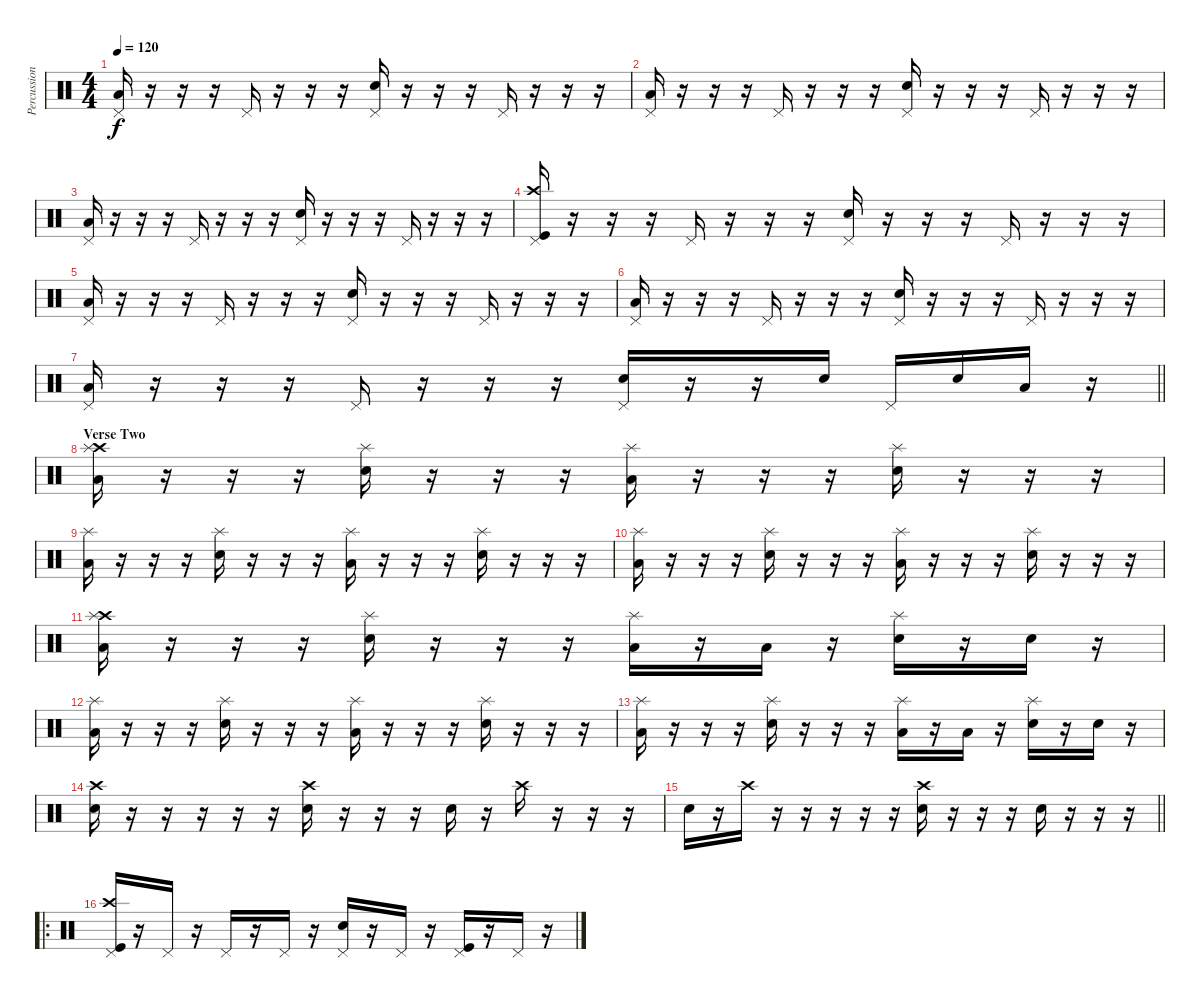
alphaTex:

\track ("Percussion" "Percussion") {instrument percussion}
\staff {score}
\articulation defaults
\ts (4 4)
\tempo 120
\clef neutral
\ks c
("Pedal Hi-Hat (hit)" "Low Tom (hit)").16{dy f} r.16 r.16 r.16 "Pedal Hi-Hat (hit)".16 r.16 r.16 r.16 ("Pedal Hi-Hat (hit)" "Electric Snare (hit)").16 r.16 r.16 r.16 "Pedal Hi-Hat (hit)".16 r.16 r.16 r.16 |
("Pedal Hi-Hat (hit)" "Low Tom (hit)").16 r.16 r.16 r.16 "Pedal Hi-Hat (hit)".16 r.16 r.16 r.16 ("Pedal Hi-Hat (hit)" "Electric Snare (hit)").16 r.16 r.16 r.16 "Pedal Hi-Hat (hit)".16 r.16 r.16 r.16 |
("Pedal Hi-Hat (hit)" "Low Tom (hit)").16 r.16 r.16 r.16 "Pedal Hi-Hat (hit)".16 r.16 r.16 r.16 ("Pedal Hi-Hat (hit)" "Electric Snare (hit)").16 r.16 r.16 r.16 "Pedal Hi-Hat (hit)".16 r.16 r.16 r.16 |
("Crash high (hit)" "Pedal Hi-Hat (hit)" "Kick (hit)").16 r.16 r.16 r.16 "Pedal Hi-Hat (hit)".16 r.16 r.16 r.16 ("Pedal Hi-Hat (hit)" "Electric Snare (hit)").16 r.16 r.16 r.16 "Pedal Hi-Hat (hit)".16 r.16 r.16 r.16 |
("Pedal Hi-Hat (hit)" "Low Tom (hit)").16 r.16 r.16 r.16 "Pedal Hi-Hat (hit)".16 r.16 r.16 r.16 ("Pedal Hi-Hat (hit)" "Electric Snare (hit)").16 r.16 r.16 r.16 "Pedal Hi-Hat (hit)".16 r.16 r.16 r.16 |
("Pedal Hi-Hat (hit)" "Low Tom (hit)").16 r.16 r.16 r.16 "Pedal Hi-Hat (hit)".16 r.16 r.16 r.16 ("Pedal Hi-Hat (hit)" "Electric Snare (hit)").16 r.16 r.16 r.16 "Pedal Hi-Hat (hit)".16 r.16 r.16 r.16 |
\barLineRight lightlight
("Pedal Hi-Hat (hit)" "Low Tom (hit)").16 r.16 r.16 r.16 "Pedal Hi-Hat (hit)".16 r.16 r.16 r.16 ("Pedal Hi-Hat (hit)" "Electric Snare (hit)").16 r.16 r.16 "Electric Snare (hit)".16 "Pedal Hi-Hat (hit)".16 "Electric Snare (hit)".16 "Low Tom (hit)".16 r.16 |
\section ("" "Verse Two")
("Crash high (hit)" "Splash (hit)" "Low Tom (hit)").16 r.16 r.16 r.16 ("Splash (hit)" "Electric Snare (hit)").16 r.16 r.16 r.16 ("Splash (hit)" "Low Tom (hit)").16 r.16 r.16 r.16 ("Splash (hit)" "Electric Snare (hit)").16 r.16 r.16 r.16 |
("Splash (hit)" "Low Tom (hit)").16 r.16 r.16 r.16 ("Splash (hit)" "Electric Snare (hit)").16 r.16 r.16 r.16 ("Splash (hit)" "Low Tom (hit)").16 r.16 r.16 r.16 ("Splash (hit)" "Electric Snare (hit)").16 r.16 r.16 r.16 |
("Splash (hit)" "Low Tom (hit)").16 r.16 r.16 r.16 ("Splash (hit)" "Electric Snare (hit)").16 r.16 r.16 r.16 ("Splash (hit)" "Low Tom (hit)").16 r.16 r.16 r.16 ("Splash (hit)" "Electric Snare (hit)").16 r.16 r.16 r.16 |
("Crash high (hit)" "Splash (hit)" "Low Tom (hit)").16 r.16 r.16 r.16 ("Splash (hit)" "Electric Snare (hit)").16 r.16 r.16 r.16 ("Splash (hit)" "Low Tom (hit)").16 r.16 "Low Tom (hit)".16 r.16 ("Splash (hit)" "Electric Snare (hit)").16 r.16 "Electric Snare (hit)".16 r.16 |
("Splash (hit)" "Low Tom (hit)").16 r.16 r.16 r.16 ("Splash (hit)" "Electric Snare (hit)").16 r.16 r.16 r.16 ("Splash (hit)" "Low Tom (hit)").16 r.16 r.16 r.16 ("Splash (hit)" "Electric Snare (hit)").16 r.16 r.16 r.16 |
("Splash (hit)" "Low Tom (hit)").16 r.16 r.16 r.16 ("Splash (hit)" "Electric Snare (hit)").16 r.16 r.16 r.16 ("Splash (hit)" "Low Tom (hit)").16 r.16 "Low Tom (hit)".16 r.16 ("Splash (hit)" "Electric Snare (hit)").16 r.16 "Electric Snare (hit)".16 r.16 |
("Crash high (hit)" "Electric Snare (hit)").16 r.16 r.16 r.16 r.16 r.16 ("Crash high (hit)" "Electric Snare (hit)").16 r.16 r.16 r.16 "Electric Snare (hit)".16 r.16 "Crash high (hit)".16 r.16 r.16 r.16 |
\barLineRight lightlight "Electric Snare (hit)".16
r.16 "Crash high (hit)".16 r.16 r.16 r.16 r.16 r.16 ("Crash high (hit)" "Electric Snare (hit)").16 r.16 r.16 r.16 "Electric Snare (hit)".16 r.16 r.16 r.16 |
\ro
("Crash high (hit)" "Pedal Hi-Hat (hit)" "Kick (hit)").16 r.16 "Pedal Hi-Hat (hit)".16 r.16 "Pedal Hi-Hat (hit)".16 r.16 "Pedal Hi-Hat (hit)".16 r.16 ("Pedal Hi-Hat (hit)" "Electric Snare (hit)").16 r.16 "Pedal Hi-Hat (hit)".16 r.16 ("Pedal Hi-Hat (hit)" "Kick (hit)").16 r.16 "Pedal Hi-Hat (hit)".16 r.16
